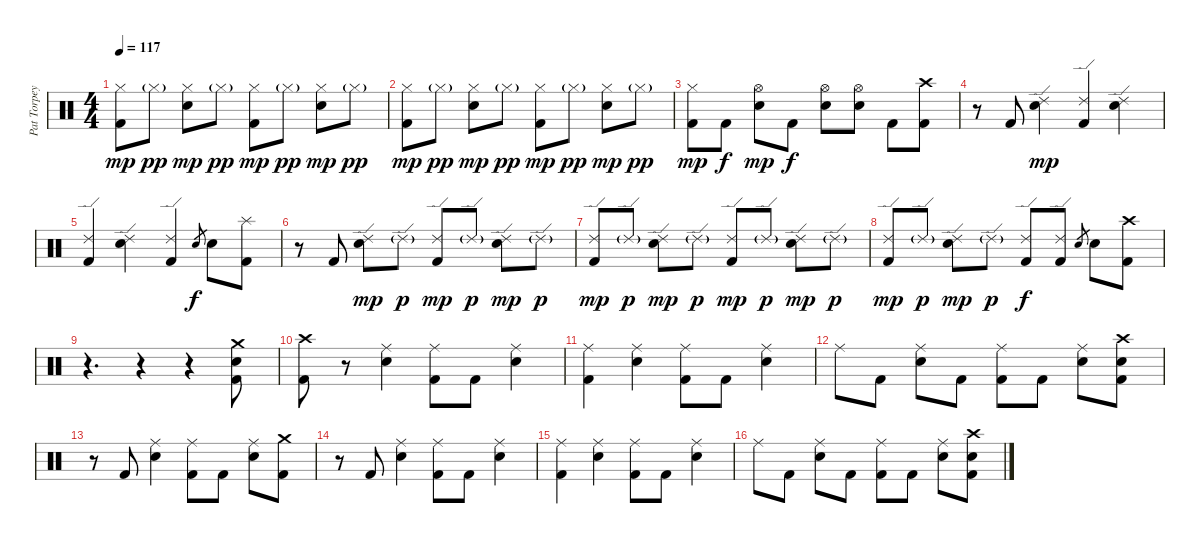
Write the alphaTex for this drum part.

\track ("Pat Torpey" "Pat Torpey") {instrument percussion}
\staff {score}
\articulation defaults
\ts (4 4)
\tempo 117
\clef neutral
\ks c
("Hi-Hat (closed)" "Kick (hit) 2").8{dy mp} "Hi-Hat (closed)"{g}.8{dy pp} ("Hi-Hat (closed)" "Electric Snare (hit)").8{dy mp} "Hi-Hat (closed)"{g}.8{dy pp} ("Hi-Hat (closed)" "Kick (hit) 2").8{dy mp} "Hi-Hat (closed)"{g}.8{dy pp} ("Hi-Hat (closed)" "Electric Snare (hit)").8{dy mp} "Hi-Hat (closed)"{g}.8{dy pp} |
("Hi-Hat (closed)" "Kick (hit) 2").8{dy mp} "Hi-Hat (closed)"{g}.8{dy pp} ("Hi-Hat (closed)" "Electric Snare (hit)").8{dy mp} "Hi-Hat (closed)"{g}.8{dy pp} ("Hi-Hat (closed)" "Kick (hit) 2").8{dy mp} "Hi-Hat (closed)"{g}.8{dy pp} ("Hi-Hat (closed)" "Electric Snare (hit)").8{dy mp} "Hi-Hat (closed)"{g}.8{dy pp} |
("Hi-Hat (closed)" "Kick (hit) 2").8{dy mp} "Kick (hit) 2".8{dy f} ("Hi-Hat (open)" "Electric Snare (hit)").8{dy mp} "Kick (hit) 2".8{dy f} ("Hi-Hat (open)" "Electric Snare (hit)").8 ("Hi-Hat (open)" "Electric Snare (hit)").8 "Kick (hit) 2".8 ("Crash high (hit)" "Kick (hit) 2").8 |
r.8 "Kick (hit) 2".8 ("Ride (edge) 2" "Electric Snare (hit)").4{dy mp} ("Ride (edge) 2" "Kick (hit) 2").4 ("Ride (edge) 2" "Electric Snare (hit)").4 |
("Ride (edge) 2" "Kick (hit) 2").4 ("Ride (edge) 2" "Electric Snare (hit)").4 ("Ride (edge) 2" "Kick (hit) 2").4 "Electric Snare (hit)"{h}.8{gr dy f} "Electric Snare (hit)".8 ("Splash (hit)" "Kick (hit) 2").8 |
r.8 "Kick (hit) 2".8 ("Ride (edge) 2" "Electric Snare (hit)").8{dy mp} "Ride (edge) 2"{g}.8{dy p} ("Ride (edge) 2" "Kick (hit) 2").8{dy mp} "Ride (edge) 2"{g}.8{dy p} ("Ride (edge) 2" "Electric Snare (hit)").8{dy mp} "Ride (edge) 2"{g}.8{dy p} |
("Ride (edge) 2" "Kick (hit) 2").8{dy mp} "Ride (edge) 2"{g}.8{dy p} ("Ride (edge) 2" "Electric Snare (hit)").8{dy mp} "Ride (edge) 2"{g}.8{dy p} ("Ride (edge) 2" "Kick (hit) 2").8{dy mp} "Ride (edge) 2"{g}.8{dy p} ("Ride (edge) 2" "Electric Snare (hit)").8{dy mp} "Ride (edge) 2"{g}.8{dy p} |
("Ride (edge) 2" "Kick (hit) 2").8{dy mp} "Ride (edge) 2"{g}.8{dy p} ("Ride (edge) 2" "Electric Snare (hit)").8{dy mp} "Ride (edge) 2"{g}.8{dy p} ("Ride (edge) 2" "Kick (hit) 2").8{dy f} ("Ride (edge) 2" "Kick (hit) 2").8 "Electric Snare (hit)"{h}.8{gr} "Electric Snare (hit)".8 ("Crash high (hit)" "Kick (hit) 2").8 |
r.4{d} r.4 r.4 ("Crash medium (hit)" "Electric Snare (hit)" "Kick (hit) 2").8 |
("Crash high (hit)" "Kick (hit) 2").8 r.8 ("Ride (middle)" "Electric Snare (hit)").4 ("Ride (middle)" "Kick (hit) 2").8 "Kick (hit) 2".8 ("Ride (middle)" "Electric Snare (hit)").4 |
("Ride (middle)" "Kick (hit) 2").4 ("Ride (middle)" "Electric Snare (hit)").4 ("Ride (middle)" "Kick (hit) 2").8 "Kick (hit) 2".8 ("Ride (middle)" "Electric Snare (hit)").4 |
"Ride (middle)".8 "Kick (hit) 2".8 ("Ride (middle)" "Electric Snare (hit)").8 "Kick (hit) 2".8 ("Ride (middle)" "Kick (hit) 2").8 "Kick (hit) 2".8 ("Ride (middle)" "Electric Snare (hit)").8 ("Crash high (hit)" "Electric Snare (hit)" "Kick (hit) 2").8 |
r.8 "Kick (hit) 2".8 ("Ride (middle)" "Electric Snare (hit)").4 ("Ride (middle)" "Kick (hit) 2").8 "Kick (hit) 2".8 ("Ride (middle)" "Electric Snare (hit)").8 ("Crash medium (hit)" "Kick (hit) 2").8 |
r.8 "Kick (hit) 2".8 ("Ride (middle)" "Electric Snare (hit)").4 ("Ride (middle)" "Kick (hit) 2").8 "Kick (hit) 2".8 ("Ride (middle)" "Electric Snare (hit)").4 |
("Ride (middle)" "Kick (hit) 2").4 ("Ride (middle)" "Electric Snare (hit)").4 ("Ride (middle)" "Kick (hit) 2").8 "Kick (hit) 2".8 ("Ride (middle)" "Electric Snare (hit)").4 |
"Ride (middle)".8 "Kick (hit) 2".8 ("Ride (middle)" "Electric Snare (hit)").8 "Kick (hit) 2".8 ("Ride (middle)" "Kick (hit) 2").8 "Kick (hit) 2".8 ("Ride (middle)" "Electric Snare (hit)").8 ("Crash high (hit)" "Electric Snare (hit)" "Kick (hit) 2").8
